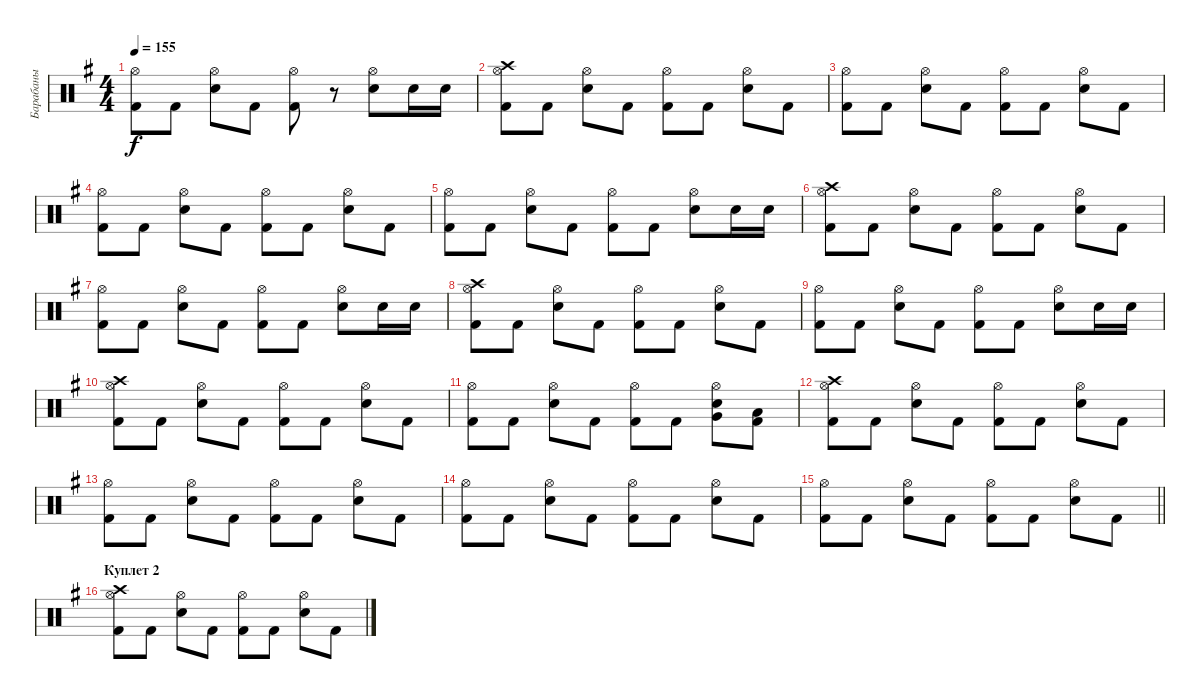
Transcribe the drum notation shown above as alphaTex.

\track ("Барабаны" "Барабаны") {instrument percussion}
\staff {score}
\articulation defaults
\ts (4 4)
\tempo 155
\clef neutral
\ks eminor
("Kick (hit) 2" "Hi-Hat (open)").8{dy f} "Kick (hit) 2".8 ("Electric Snare (hit)" "Hi-Hat (open)").8 "Kick (hit) 2".8 ("Kick (hit) 2" "Hi-Hat (open)").8 r.8 ("Electric Snare (hit)" "Hi-Hat (open)").8 "Electric Snare (hit)".16 "Electric Snare (hit)".16 |
("Kick (hit) 2" "Hi-Hat (open)" "Crash high (hit)").8 "Kick (hit) 2".8 ("Electric Snare (hit)" "Hi-Hat (open)").8 "Kick (hit) 2".8 ("Kick (hit) 2" "Hi-Hat (open)").8 "Kick (hit) 2".8 ("Electric Snare (hit)" "Hi-Hat (open)").8 "Kick (hit) 2".8 |
("Kick (hit) 2" "Hi-Hat (open)").8 "Kick (hit) 2".8 ("Electric Snare (hit)" "Hi-Hat (open)").8 "Kick (hit) 2".8 ("Kick (hit) 2" "Hi-Hat (open)").8 "Kick (hit) 2".8 ("Electric Snare (hit)" "Hi-Hat (open)").8 "Kick (hit) 2".8 |
("Kick (hit) 2" "Hi-Hat (open)").8 "Kick (hit) 2".8 ("Electric Snare (hit)" "Hi-Hat (open)").8 "Kick (hit) 2".8 ("Kick (hit) 2" "Hi-Hat (open)").8 "Kick (hit) 2".8 ("Electric Snare (hit)" "Hi-Hat (open)").8 "Kick (hit) 2".8 |
("Kick (hit) 2" "Hi-Hat (open)").8 "Kick (hit) 2".8 ("Electric Snare (hit)" "Hi-Hat (open)").8 "Kick (hit) 2".8 ("Kick (hit) 2" "Hi-Hat (open)").8 "Kick (hit) 2".8 ("Electric Snare (hit)" "Hi-Hat (open)").8 "Electric Snare (hit)".16 "Electric Snare (hit)".16 |
("Kick (hit) 2" "Hi-Hat (open)" "Crash high (hit)").8 "Kick (hit) 2".8 ("Electric Snare (hit)" "Hi-Hat (open)").8 "Kick (hit) 2".8 ("Kick (hit) 2" "Hi-Hat (open)").8 "Kick (hit) 2".8 ("Electric Snare (hit)" "Hi-Hat (open)").8 "Kick (hit) 2".8 |
("Kick (hit) 2" "Hi-Hat (open)").8 "Kick (hit) 2".8 ("Electric Snare (hit)" "Hi-Hat (open)").8 "Kick (hit) 2".8 ("Kick (hit) 2" "Hi-Hat (open)").8 "Kick (hit) 2".8 ("Electric Snare (hit)" "Hi-Hat (open)").8 "Electric Snare (hit)".16 "Electric Snare (hit)".16 |
("Kick (hit) 2" "Hi-Hat (open)" "Crash high (hit)").8 "Kick (hit) 2".8 ("Electric Snare (hit)" "Hi-Hat (open)").8 "Kick (hit) 2".8 ("Kick (hit) 2" "Hi-Hat (open)").8 "Kick (hit) 2".8 ("Electric Snare (hit)" "Hi-Hat (open)").8 "Kick (hit) 2".8 |
("Kick (hit) 2" "Hi-Hat (open)").8 "Kick (hit) 2".8 ("Electric Snare (hit)" "Hi-Hat (open)").8 "Kick (hit) 2".8 ("Kick (hit) 2" "Hi-Hat (open)").8 "Kick (hit) 2".8 ("Electric Snare (hit)" "Hi-Hat (open)").8 "Electric Snare (hit)".16 "Electric Snare (hit)".16 |
("Kick (hit) 2" "Hi-Hat (open)" "Crash high (hit)").8 "Kick (hit) 2".8 ("Electric Snare (hit)" "Hi-Hat (open)").8 "Kick (hit) 2".8 ("Kick (hit) 2" "Hi-Hat (open)").8 "Kick (hit) 2".8 ("Electric Snare (hit)" "Hi-Hat (open)").8 "Kick (hit) 2".8 |
("Kick (hit) 2" "Hi-Hat (open)").8 "Kick (hit) 2".8 ("Electric Snare (hit)" "Hi-Hat (open)").8 "Kick (hit) 2".8 ("Kick (hit) 2" "Hi-Hat (open)").8 "Kick (hit) 2".8 ("Electric Snare (hit)" "Hi-Hat (open)" "Very Low Tom (hit)").8 ("Kick (hit) 2" "Low Floor Tom (hit)").8 |
("Kick (hit) 2" "Hi-Hat (open)" "Crash high (hit)").8 "Kick (hit) 2".8 ("Electric Snare (hit)" "Hi-Hat (open)").8 "Kick (hit) 2".8 ("Kick (hit) 2" "Hi-Hat (open)").8 "Kick (hit) 2".8 ("Electric Snare (hit)" "Hi-Hat (open)").8 "Kick (hit) 2".8 |
("Kick (hit) 2" "Hi-Hat (open)").8 "Kick (hit) 2".8 ("Electric Snare (hit)" "Hi-Hat (open)").8 "Kick (hit) 2".8 ("Kick (hit) 2" "Hi-Hat (open)").8 "Kick (hit) 2".8 ("Electric Snare (hit)" "Hi-Hat (open)").8 "Kick (hit) 2".8 |
("Kick (hit) 2" "Hi-Hat (open)").8 "Kick (hit) 2".8 ("Electric Snare (hit)" "Hi-Hat (open)").8 "Kick (hit) 2".8 ("Kick (hit) 2" "Hi-Hat (open)").8 "Kick (hit) 2".8 ("Electric Snare (hit)" "Hi-Hat (open)").8 "Kick (hit) 2".8 |
\barLineRight lightlight
("Kick (hit) 2" "Hi-Hat (open)").8 "Kick (hit) 2".8 ("Electric Snare (hit)" "Hi-Hat (open)").8 "Kick (hit) 2".8 ("Kick (hit) 2" "Hi-Hat (open)").8 "Kick (hit) 2".8 ("Electric Snare (hit)" "Hi-Hat (open)").8 "Kick (hit) 2".8 |
\section ("" "Куплет 2")
("Kick (hit) 2" "Hi-Hat (open)" "Crash high (hit)").8 "Kick (hit) 2".8 ("Electric Snare (hit)" "Hi-Hat (open)").8 "Kick (hit) 2".8 ("Kick (hit) 2" "Hi-Hat (open)").8 "Kick (hit) 2".8 ("Electric Snare (hit)" "Hi-Hat (open)").8 "Kick (hit) 2".8
